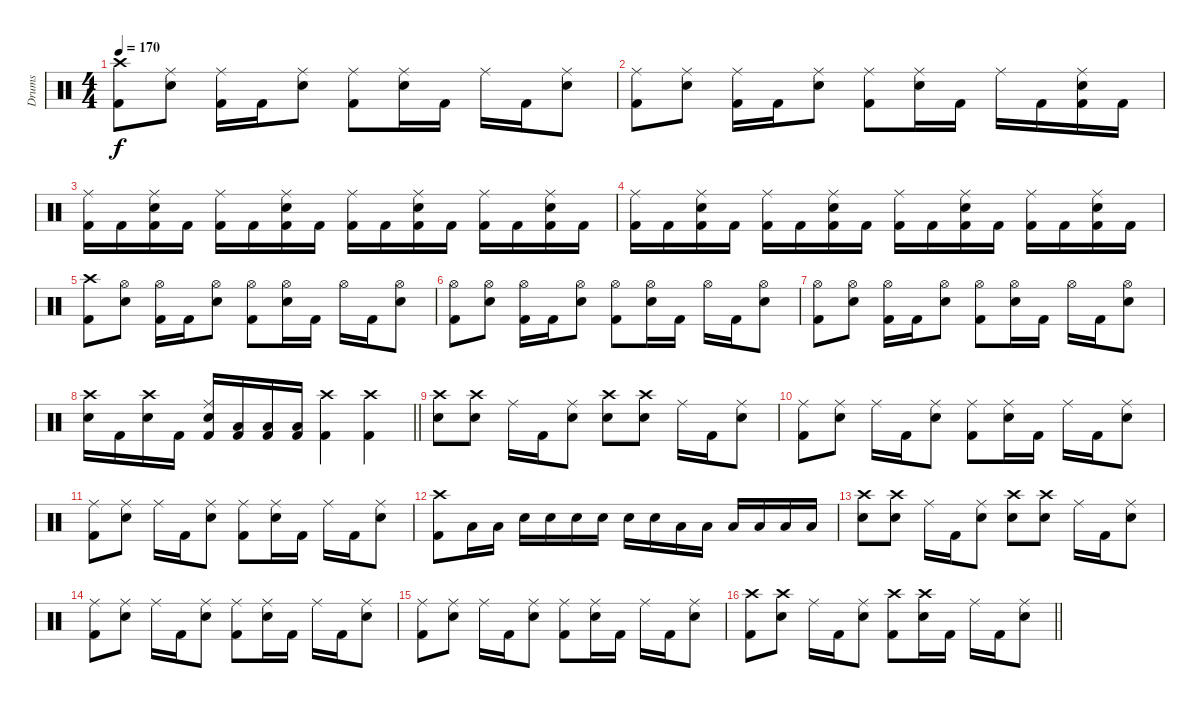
\track ("Drums" "Drums") {instrument percussion}
\staff {score}
\articulation defaults
\ts (4 4)
\tempo 170
\clef neutral
\ks c
("Crash high (hit)" "Kick (hit) 2").8{dy f} ("Ride (middle)" "Snare (hit) 2").8 ("Ride (middle)" "Kick (hit) 2").16 "Kick (hit) 2".16 ("Ride (middle)" "Snare (hit) 2").8 ("Ride (middle)" "Kick (hit) 2").8 ("Ride (middle)" "Snare (hit) 2").16 "Kick (hit) 2".16 "Ride (middle)".16 "Kick (hit) 2".16 ("Ride (middle)" "Snare (hit) 2").8 |
("Ride (middle)" "Kick (hit) 2").8 ("Ride (middle)" "Snare (hit) 2").8 ("Ride (middle)" "Kick (hit) 2").16 "Kick (hit) 2".16 ("Ride (middle)" "Snare (hit) 2").8 ("Ride (middle)" "Kick (hit) 2").8 ("Ride (middle)" "Snare (hit) 2").16 "Kick (hit) 2".16 "Ride (middle)".16 "Kick (hit) 2".16 ("Ride (middle)" "Snare (hit) 2" "Kick (hit) 2").16 "Kick (hit) 2".16 |
("Ride (middle)" "Kick (hit) 2").16 "Kick (hit) 2".16 ("Ride (middle)" "Snare (hit) 2" "Kick (hit) 2").16 "Kick (hit) 2".16 ("Ride (middle)" "Kick (hit) 2").16 "Kick (hit) 2".16 ("Ride (middle)" "Snare (hit) 2" "Kick (hit) 2").16 "Kick (hit) 2".16 ("Ride (middle)" "Kick (hit) 2").16 "Kick (hit) 2".16 ("Ride (middle)" "Snare (hit) 2" "Kick (hit) 2").16 "Kick (hit) 2".16 ("Ride (middle)" "Kick (hit) 2").16 "Kick (hit) 2".16 ("Ride (middle)" "Snare (hit) 2" "Kick (hit) 2").16 "Kick (hit) 2".16 |
("Ride (middle)" "Kick (hit) 2").16 "Kick (hit) 2".16 ("Ride (middle)" "Snare (hit) 2" "Kick (hit) 2").16 "Kick (hit) 2".16 ("Ride (middle)" "Kick (hit) 2").16 "Kick (hit) 2".16 ("Ride (middle)" "Snare (hit) 2" "Kick (hit) 2").16 "Kick (hit) 2".16 ("Ride (middle)" "Kick (hit) 2").16 "Kick (hit) 2".16 ("Ride (middle)" "Snare (hit) 2" "Kick (hit) 2").16 "Kick (hit) 2".16 ("Ride (middle)" "Kick (hit) 2").16 "Kick (hit) 2".16 ("Ride (middle)" "Snare (hit) 2" "Kick (hit) 2").16 "Kick (hit) 2".16 |
("Crash high (hit)" "Kick (hit) 2").8 ("Hi-Hat (open)" "Snare (hit) 2").8 ("Hi-Hat (open)" "Kick (hit) 2").16 "Kick (hit) 2".16 ("Hi-Hat (open)" "Snare (hit) 2").8 ("Hi-Hat (open)" "Kick (hit) 2").8 ("Hi-Hat (open)" "Snare (hit) 2").16 "Kick (hit) 2".16 "Hi-Hat (open)".16 "Kick (hit) 2".16 ("Hi-Hat (open)" "Snare (hit) 2").8 |
("Hi-Hat (open)" "Kick (hit) 2").8 ("Hi-Hat (open)" "Snare (hit) 2").8 ("Hi-Hat (open)" "Kick (hit) 2").16 "Kick (hit) 2".16 ("Hi-Hat (open)" "Snare (hit) 2").8 ("Hi-Hat (open)" "Kick (hit) 2").8 ("Hi-Hat (open)" "Snare (hit) 2").16 "Kick (hit) 2".16 "Hi-Hat (open)".16 "Kick (hit) 2".16 ("Hi-Hat (open)" "Snare (hit) 2").8 |
("Hi-Hat (open)" "Kick (hit) 2").8 ("Hi-Hat (open)" "Snare (hit) 2").8 ("Hi-Hat (open)" "Kick (hit) 2").16 "Kick (hit) 2".16 ("Hi-Hat (open)" "Snare (hit) 2").8 ("Hi-Hat (open)" "Kick (hit) 2").8 ("Hi-Hat (open)" "Snare (hit) 2").16 "Kick (hit) 2".16 "Hi-Hat (open)".16 "Kick (hit) 2".16 ("Hi-Hat (open)" "Snare (hit) 2").8 |
\barLineRight lightlight
("Crash high (hit)" "Snare (hit) 2").16 "Kick (hit) 2".16 ("Crash high (hit)" "Snare (hit) 2").16 "Kick (hit) 2".16 ("Ride (middle)" "Snare (hit) 2" "Kick (hit) 2").16 ("Low Tom (hit)" "Kick (hit) 2").16 ("Low Floor Tom (hit)" "Kick (hit) 2").16 ("Low Floor Tom (hit)" "Kick (hit) 2").16 ("Crash high (hit)" "Kick (hit) 2").4 ("Crash high (hit)" "Kick (hit) 2").4 |
("Crash high (hit)" "Snare (hit) 2").8 ("Crash high (hit)" "Snare (hit) 2").8 "Ride (middle)".16 "Kick (hit) 2".16 ("Ride (middle)" "Snare (hit) 2").8 ("Crash high (hit)" "Snare (hit) 2").8 ("Crash high (hit)" "Snare (hit) 2").8 "Ride (middle)".16 "Kick (hit) 2".16 ("Ride (middle)" "Snare (hit) 2").8 |
("Ride (middle)" "Kick (hit) 2").8 ("Ride (middle)" "Snare (hit) 2").8 "Ride (middle)".16 "Kick (hit) 2".16 ("Ride (middle)" "Snare (hit) 2").8 ("Ride (middle)" "Kick (hit) 2").8 ("Ride (middle)" "Snare (hit) 2").16 "Kick (hit) 2".16 "Ride (middle)".16 "Kick (hit) 2".16 ("Ride (middle)" "Snare (hit) 2").8 |
("Ride (middle)" "Kick (hit) 2").8 ("Ride (middle)" "Snare (hit) 2").8 "Ride (middle)".16 "Kick (hit) 2".16 ("Ride (middle)" "Snare (hit) 2").8 ("Ride (middle)" "Kick (hit) 2").8 ("Ride (middle)" "Snare (hit) 2").16 "Kick (hit) 2".16 "Ride (middle)".16 "Kick (hit) 2".16 ("Ride (middle)" "Snare (hit) 2").8 |
("Crash high (hit)" "Kick (hit) 2").8 "Low Tom (hit)".16 "Low Tom (hit)".16 "Snare (hit) 2".16 "Snare (hit) 2".16 "Snare (hit) 2".16 "Snare (hit) 2".16 "Snare (hit) 2".16 "Snare (hit) 2".16 "Low Tom (hit)".16 "Low Tom (hit)".16 "Low Floor Tom (hit)".16 "Low Floor Tom (hit)".16 "Low Floor Tom (hit)".16 "Low Floor Tom (hit)".16 |
("Crash high (hit)" "Snare (hit) 2").8 ("Crash high (hit)" "Snare (hit) 2").8 "Ride (middle)".16 "Kick (hit) 2".16 ("Ride (middle)" "Snare (hit) 2").8 ("Crash high (hit)" "Snare (hit) 2").8 ("Crash high (hit)" "Snare (hit) 2").8 "Ride (middle)".16 "Kick (hit) 2".16 ("Ride (middle)" "Snare (hit) 2").8 |
("Ride (middle)" "Kick (hit) 2").8 ("Ride (middle)" "Snare (hit) 2").8 "Ride (middle)".16 "Kick (hit) 2".16 ("Ride (middle)" "Snare (hit) 2").8 ("Ride (middle)" "Kick (hit) 2").8 ("Ride (middle)" "Snare (hit) 2").16 "Kick (hit) 2".16 "Ride (middle)".16 "Kick (hit) 2".16 ("Ride (middle)" "Snare (hit) 2").8 |
("Ride (middle)" "Kick (hit) 2").8 ("Ride (middle)" "Snare (hit) 2").8 "Ride (middle)".16 "Kick (hit) 2".16 ("Ride (middle)" "Snare (hit) 2").8 ("Ride (middle)" "Kick (hit) 2").8 ("Ride (middle)" "Snare (hit) 2").16 "Kick (hit) 2".16 "Ride (middle)".16 "Kick (hit) 2".16 ("Ride (middle)" "Snare (hit) 2").8 |
\barLineRight lightlight
("Crash high (hit)" "Kick (hit) 2").8 ("Crash high (hit)" "Snare (hit) 2").8 "Ride (middle)".16 "Kick (hit) 2".16 ("Ride (middle)" "Snare (hit) 2").8 ("Crash high (hit)" "Kick (hit) 2").8 ("Crash high (hit)" "Snare (hit) 2").16 "Kick (hit) 2".16 "Ride (middle)".16 "Kick (hit) 2".16 ("Ride (middle)" "Snare (hit) 2").8
